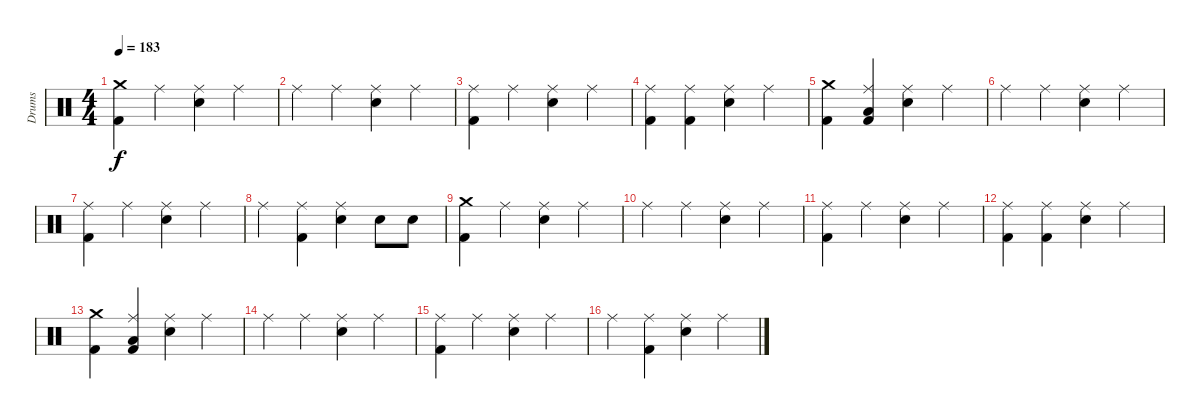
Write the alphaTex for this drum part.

\track ("Drums" "Drums") {instrument percussion}
\staff {score}
\articulation defaults
\ts (4 4)
\tempo 183
\clef neutral
\ks c
("Crash medium (hit)" "Kick (hit) 2").4{dy f} "Ride (middle)".4 ("Ride (middle)" "Electric Snare (hit)").4 "Ride (middle)".4 |
"Ride (middle)".4 "Ride (middle)".4 ("Ride (middle)" "Electric Snare (hit)").4 "Ride (middle)".4 |
("Ride (middle)" "Kick (hit) 2").4 "Ride (middle)".4 ("Ride (middle)" "Electric Snare (hit)").4 "Ride (middle)".4 |
("Ride (middle)" "Kick (hit) 2").4 ("Ride (middle)" "Kick (hit) 2").4 ("Ride (middle)" "Electric Snare (hit)").4 "Ride (middle)".4 |
("Crash medium (hit)" "Kick (hit) 2").4 ("Ride (middle)" "Low Floor Tom (hit)" "Kick (hit) 2").4 ("Ride (middle)" "Electric Snare (hit)").4 "Ride (middle)".4 |
"Ride (middle)".4 "Ride (middle)".4 ("Ride (middle)" "Electric Snare (hit)").4 "Ride (middle)".4 |
("Ride (middle)" "Kick (hit) 2").4 "Ride (middle)".4 ("Ride (middle)" "Electric Snare (hit)").4 "Ride (middle)".4 |
"Ride (middle)".4 ("Ride (middle)" "Kick (hit) 2").4 ("Ride (middle)" "Electric Snare (hit)").4 "Electric Snare (hit)".8 "Electric Snare (hit)".8 |
("Crash medium (hit)" "Kick (hit) 2").4 "Ride (middle)".4 ("Ride (middle)" "Electric Snare (hit)").4 "Ride (middle)".4 |
"Ride (middle)".4 "Ride (middle)".4 ("Ride (middle)" "Electric Snare (hit)").4 "Ride (middle)".4 |
("Ride (middle)" "Kick (hit) 2").4 "Ride (middle)".4 ("Ride (middle)" "Electric Snare (hit)").4 "Ride (middle)".4 |
("Ride (middle)" "Kick (hit) 2").4 ("Ride (middle)" "Kick (hit) 2").4 ("Ride (middle)" "Electric Snare (hit)").4 "Ride (middle)".4 |
("Crash medium (hit)" "Kick (hit) 2").4 ("Ride (middle)" "Low Floor Tom (hit)" "Kick (hit) 2").4 ("Ride (middle)" "Electric Snare (hit)").4 "Ride (middle)".4 |
"Ride (middle)".4 "Ride (middle)".4 ("Ride (middle)" "Electric Snare (hit)").4 "Ride (middle)".4 |
("Ride (middle)" "Kick (hit) 2").4 "Ride (middle)".4 ("Ride (middle)" "Electric Snare (hit)").4 "Ride (middle)".4 |
"Ride (middle)".4 ("Ride (middle)" "Kick (hit) 2").4 ("Ride (middle)" "Electric Snare (hit)").4 "Ride (middle)".4
